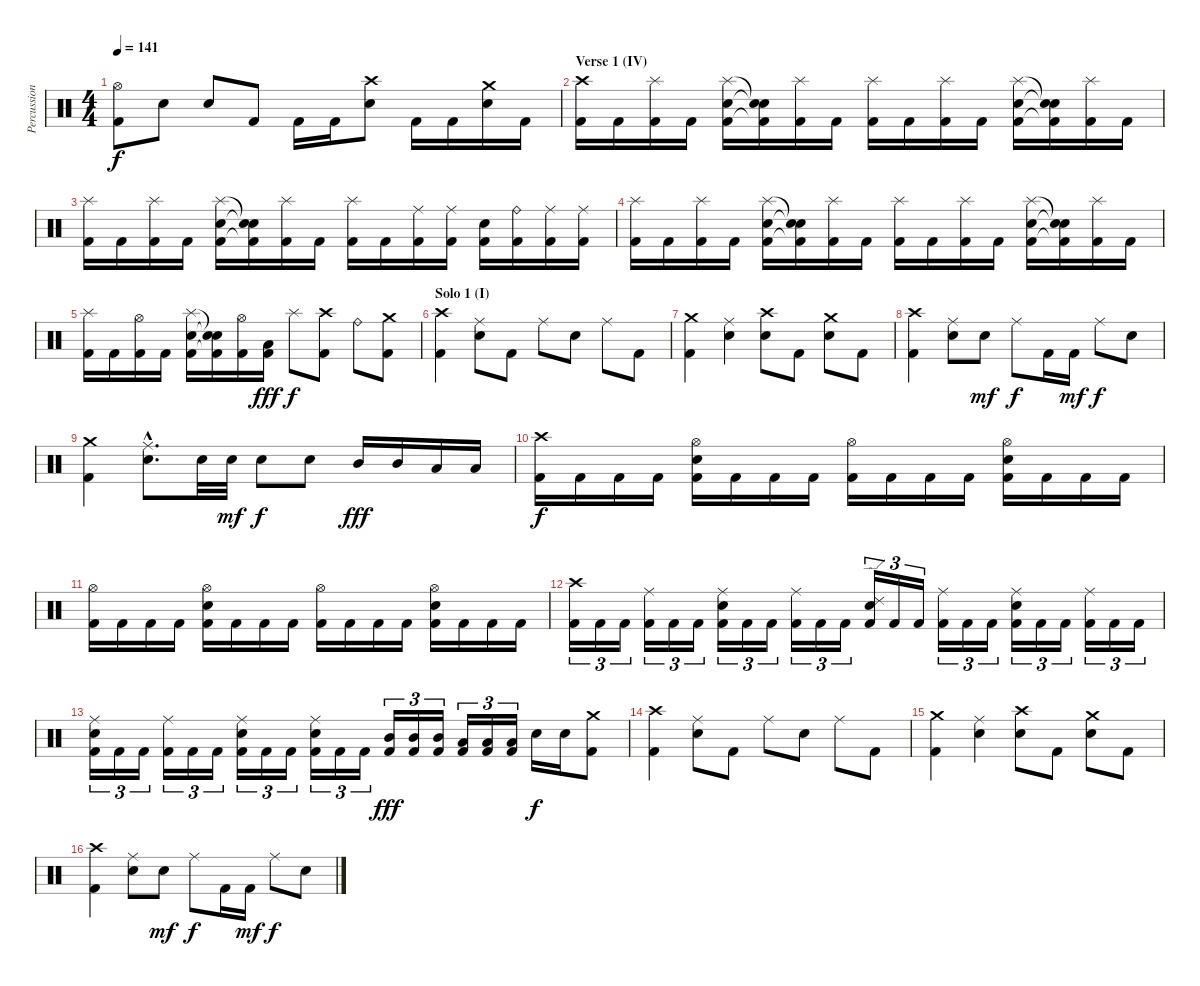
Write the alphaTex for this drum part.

\track ("Percussion" "Percussion") {instrument percussion}
\staff {score}
\articulation defaults
\ts (4 4)
\tempo 141
\clef neutral
\ks c
("Hi-Hat (open)" "Kick (hit) 2").8{dy f} "Snare (hit) 2".8 "Snare (hit) 2".8 "Kick (hit) 2".8 "Kick (hit) 2".16 "Kick (hit) 2".16 ("Crash high (hit)" "Snare (hit) 2").8 "Kick (hit) 2".16 "Kick (hit) 2".16 ("Crash medium (hit)" "Snare (hit) 2").16 "Kick (hit) 2".16 |
\section ("" "Verse 1 (IV)")
("Crash high (hit)" "Kick (hit) 2").16 "Kick (hit) 2".16 ("Splash (hit)" "Kick (hit) 2").16 "Kick (hit) 2".16 ("Splash (hit)" "Snare (hit) 2" "Kick (hit) 2").16 ("Snare (hit)"{t} "Snare (hit)"{t} "Kick (hit) 2"{t}).16 ("Splash (hit)" "Kick (hit) 2").16 "Kick (hit) 2".16 ("Splash (hit)" "Kick (hit) 2").16 "Kick (hit) 2".16 ("Splash (hit)" "Kick (hit) 2").16 "Kick (hit) 2".16 ("Splash (hit)" "Snare (hit) 2" "Kick (hit) 2").16 ("Snare (hit)"{t} "Snare (hit)"{t} "Kick (hit) 2"{t}).16 ("Splash (hit)" "Kick (hit) 2").16 "Kick (hit) 2".16 |
("Splash (hit)" "Kick (hit) 2").16 "Kick (hit) 2".16 ("Splash (hit)" "Kick (hit) 2").16 "Kick (hit) 2".16 ("Splash (hit)" "Snare (hit) 2" "Kick (hit) 2").16 ("Snare (hit)"{t} "Snare (hit)"{t} "Kick (hit) 2"{t}).16 ("Splash (hit)" "Kick (hit) 2").16 "Kick (hit) 2".16 ("Splash (hit)" "Kick (hit) 2").16 "Kick (hit) 2".16 ("Ride (middle)" "Kick (hit) 2").16 ("Ride (middle)" "Kick (hit) 2").16 ("Snare (hit) 2" "Kick (hit) 2").16 ("Ride (bell)" "Kick (hit) 2").16 ("Ride (middle)" "Kick (hit) 2").16 ("Ride (middle)" "Kick (hit) 2").16 |
("Splash (hit)" "Kick (hit) 2").16 "Kick (hit) 2".16 ("Splash (hit)" "Kick (hit) 2").16 "Kick (hit) 2".16 ("Splash (hit)" "Snare (hit) 2" "Kick (hit) 2").16 ("Snare (hit)"{t} "Snare (hit)"{t} "Kick (hit) 2"{t}).16 ("Splash (hit)" "Kick (hit) 2").16 "Kick (hit) 2".16 ("Splash (hit)" "Kick (hit) 2").16 "Kick (hit) 2".16 ("Splash (hit)" "Kick (hit) 2").16 "Kick (hit) 2".16 ("Splash (hit)" "Snare (hit) 2" "Kick (hit) 2").16 ("Snare (hit)"{t} "Snare (hit)"{t} "Kick (hit) 2"{t}).16 ("Splash (hit)" "Kick (hit) 2").16 "Kick (hit) 2".16 |
("Splash (hit)" "Kick (hit) 2").16 "Kick (hit) 2".16 ("Hi-Hat (open)" "Kick (hit) 2").16 "Kick (hit) 2".16 ("Splash (hit)" "Snare (hit) 2" "Kick (hit) 2").16 ("Snare (hit)"{t} "Snare (hit)"{t} "Kick (hit) 2"{t}).16 ("Hi-Hat (open)" "Kick (hit) 2").16 ("Low Tom (hit)" "Kick (hit) 2").16{dy fff} "Splash (hit)".8{dy f} ("Crash high (hit)" "Kick (hit) 2").8 "Ride (bell)".8 ("Crash medium (hit)" "Kick (hit) 2").8 |
\section ("" "Solo 1 (I)")
("Crash high (hit)" "Kick (hit) 2").4 ("Ride (middle)" "Snare (hit) 2").8 "Kick (hit) 2".8 "Ride (middle)".8 "Snare (hit) 2".8 "Ride (middle)".8 "Kick (hit) 2".8 |
("Crash medium (hit)" "Kick (hit) 2").4 ("Ride (middle)" "Snare (hit) 2").4 ("Crash high (hit)" "Snare (hit) 2").8 "Kick (hit) 2".8 ("Crash medium (hit)" "Snare (hit) 2").8 "Kick (hit) 2".8 |
("Crash high (hit)" "Kick (hit) 2").4 ("Ride (middle)" "Snare (hit) 2").8 "Snare (hit) 2".8{dy mf} "Ride (middle)".8{dy f} "Kick (hit) 2".16 "Kick (hit) 2".16{dy mf} "Ride (middle)".8{dy f} "Snare (hit) 2".8 |
("Crash medium (hit)" "Kick (hit) 2").4 ("Ride (middle)"{hac} "Snare (hit) 2"{hac}).8{d} "Snare (hit) 2".32 "Snare (hit) 2".32{dy mf} "Snare (hit) 2".8{dy f} "Snare (hit) 2".8 "Mid Tom (hit)".16{dy fff} "Mid Tom (hit)".16 "Low Tom (hit)".16 "Low Tom (hit)".16 |
("Crash high (hit)" "Kick (hit) 2").16{dy f} "Kick (hit) 2".16 "Kick (hit) 2".16 "Kick (hit) 2".16 ("Hi-Hat (open)" "Snare (hit) 2" "Kick (hit) 2").16 "Kick (hit) 2".16 "Kick (hit) 2".16 "Kick (hit) 2".16 ("Hi-Hat (open)" "Kick (hit) 2").16 "Kick (hit) 2".16 "Kick (hit) 2".16 "Kick (hit) 2".16 ("Hi-Hat (open)" "Snare (hit) 2" "Kick (hit) 2").16 "Kick (hit) 2".16 "Kick (hit) 2".16 "Kick (hit) 2".16 |
("Hi-Hat (open)" "Kick (hit) 2").16 "Kick (hit) 2".16 "Kick (hit) 2".16 "Kick (hit) 2".16 ("Hi-Hat (open)" "Snare (hit) 2" "Kick (hit) 2").16 "Kick (hit) 2".16 "Kick (hit) 2".16 "Kick (hit) 2".16 ("Hi-Hat (open)" "Kick (hit) 2").16 "Kick (hit) 2".16 "Kick (hit) 2".16 "Kick (hit) 2".16 ("Hi-Hat (open)" "Snare (hit) 2" "Kick (hit) 2").16 "Kick (hit) 2".16 "Kick (hit) 2".16 "Kick (hit) 2".16 |
("Crash high (hit)" "Kick (hit) 2").16{tu (3 2)} "Kick (hit) 2".16{tu (3 2)} "Kick (hit) 2".16{tu (3 2)} ("Ride (middle)" "Kick (hit) 2").16{tu (3 2)} "Kick (hit) 2".16{tu (3 2)} "Kick (hit) 2".16{tu (3 2)} ("Ride (middle)" "Snare (hit) 2" "Kick (hit) 2").16{tu (3 2)} "Kick (hit) 2".16{tu (3 2)} "Kick (hit) 2".16{tu (3 2)} ("Ride (middle)" "Kick (hit) 2").16{tu (3 2)} "Kick (hit) 2".16{tu (3 2)} "Kick (hit) 2".16{tu (3 2)} ("Ride (edge) 2" "Snare (hit) 2" "Kick (hit) 2").16{tu (3 2)} "Kick (hit) 2".16{tu (3 2)} "Kick (hit) 2".16{tu (3 2)} ("Ride (middle)" "Kick (hit) 2").16{tu (3 2)} "Kick (hit) 2".16{tu (3 2)} "Kick (hit) 2".16{tu (3 2)} ("Ride (middle)" "Snare (hit) 2" "Kick (hit) 2").16{tu (3 2)} "Kick (hit) 2".16{tu (3 2)} "Kick (hit) 2".16{tu (3 2)} ("Ride (middle)" "Kick (hit) 2").16{tu (3 2)} "Kick (hit) 2".16{tu (3 2)} "Kick (hit) 2".16{tu (3 2)} |
("Ride (middle)" "Snare (hit) 2" "Kick (hit) 2").16{tu (3 2)} "Kick (hit) 2".16{tu (3 2)} "Kick (hit) 2".16{tu (3 2)} ("Ride (middle)" "Kick (hit) 2").16{tu (3 2)} "Kick (hit) 2".16{tu (3 2)} "Kick (hit) 2".16{tu (3 2)} ("Ride (middle)" "Snare (hit) 2" "Kick (hit) 2").16{tu (3 2)} "Kick (hit) 2".16{tu (3 2)} "Kick (hit) 2".16{tu (3 2)} ("Ride (middle)" "Snare (hit) 2" "Kick (hit) 2").16{tu (3 2)} "Kick (hit) 2".16{tu (3 2)} "Kick (hit) 2".16{tu (3 2)} ("Mid Tom (hit)" "Kick (hit) 2").16{tu (3 2) dy fff} ("Mid Tom (hit)" "Kick (hit) 2").16{tu (3 2)} ("Mid Tom (hit)" "Kick (hit) 2").16{tu (3 2)} ("Low Tom (hit)" "Kick (hit) 2").16{tu (3 2)} ("Low Tom (hit)" "Kick (hit) 2").16{tu (3 2)} ("Low Tom (hit)" "Kick (hit) 2").16{tu (3 2)} "Snare (hit) 2".16{dy f} "Snare (hit) 2".16 ("Crash medium (hit)" "Kick (hit) 2").8 |
("Crash high (hit)" "Kick (hit) 2").4 ("Ride (middle)" "Snare (hit) 2").8 "Kick (hit) 2".8 "Ride (middle)".8 "Snare (hit) 2".8 "Ride (middle)".8 "Kick (hit) 2".8 |
("Crash medium (hit)" "Kick (hit) 2").4 ("Ride (middle)" "Snare (hit) 2").4 ("Crash high (hit)" "Snare (hit) 2").8 "Kick (hit) 2".8 ("Crash medium (hit)" "Snare (hit) 2").8 "Kick (hit) 2".8 |
("Crash high (hit)" "Kick (hit) 2").4 ("Ride (middle)" "Snare (hit) 2").8 "Snare (hit) 2".8{dy mf} "Ride (middle)".8{dy f} "Kick (hit) 2".16 "Kick (hit) 2".16{dy mf} "Ride (middle)".8{dy f} "Snare (hit) 2".8
